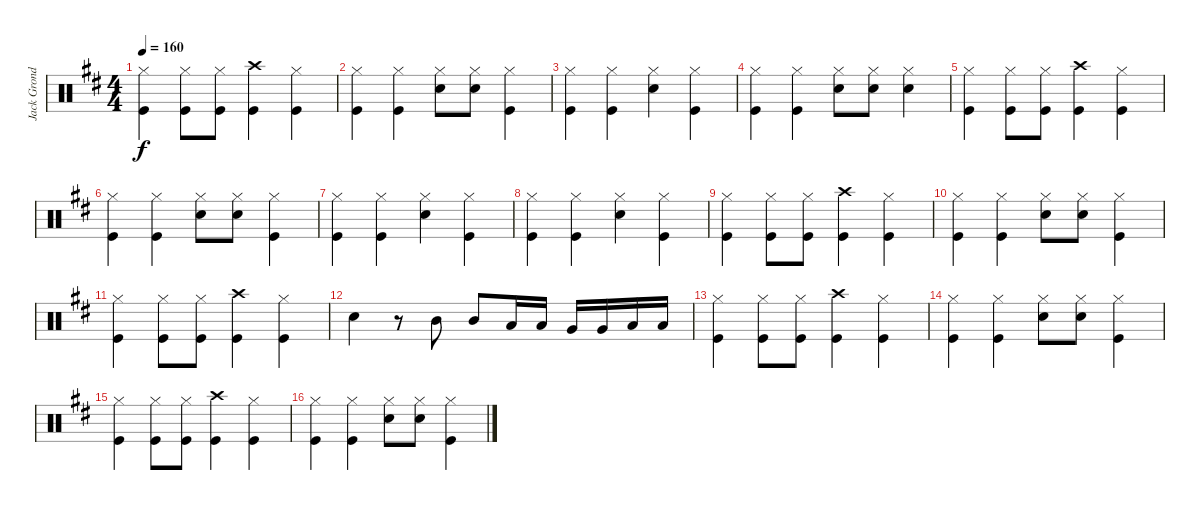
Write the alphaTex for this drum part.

\track ("Jack Grondin Drums" "Jack Grond") {instrument percussion}
\staff {score}
\articulation defaults
\ts (4 4)
\tempo 160
\clef neutral
\ks d
("Hi-Hat (closed)" "Kick (hit)").4{dy f} ("Hi-Hat (closed)" "Kick (hit)").8 ("Hi-Hat (closed)" "Kick (hit)").8 ("Crash high (hit)" "Kick (hit)").4 ("Hi-Hat (closed)" "Kick (hit)").4 |
("Hi-Hat (closed)" "Kick (hit)").4 ("Hi-Hat (closed)" "Kick (hit)").4 ("Hi-Hat (closed)" "Snare (hit) 2").8 ("Hi-Hat (closed)" "Snare (hit) 2").8 ("Hi-Hat (closed)" "Kick (hit)").4 |
("Hi-Hat (closed)" "Kick (hit)").4 ("Hi-Hat (closed)" "Kick (hit)").4 ("Hi-Hat (closed)" "Snare (hit) 2").4 ("Hi-Hat (closed)" "Kick (hit)").4 |
("Hi-Hat (closed)" "Kick (hit)").4 ("Hi-Hat (closed)" "Kick (hit)").4 ("Hi-Hat (closed)" "Snare (hit) 2").8 ("Hi-Hat (closed)" "Snare (hit) 2").8 ("Hi-Hat (closed)" "Snare (hit) 2").4 |
("Hi-Hat (closed)" "Kick (hit)").4 ("Hi-Hat (closed)" "Kick (hit)").8 ("Hi-Hat (closed)" "Kick (hit)").8 ("Crash high (hit)" "Kick (hit)").4 ("Hi-Hat (closed)" "Kick (hit)").4 |
("Hi-Hat (closed)" "Kick (hit)").4 ("Hi-Hat (closed)" "Kick (hit)").4 ("Hi-Hat (closed)" "Snare (hit) 2").8 ("Hi-Hat (closed)" "Snare (hit) 2").8 ("Hi-Hat (closed)" "Kick (hit)").4 |
("Hi-Hat (closed)" "Kick (hit)").4 ("Hi-Hat (closed)" "Kick (hit)").4 ("Hi-Hat (closed)" "Snare (hit) 2").4 ("Hi-Hat (closed)" "Kick (hit)").4 |
("Hi-Hat (closed)" "Kick (hit)").4 ("Hi-Hat (closed)" "Kick (hit)").4 ("Hi-Hat (closed)" "Snare (hit) 2").4 ("Hi-Hat (closed)" "Kick (hit)").4 |
("Hi-Hat (closed)" "Kick (hit)").4 ("Hi-Hat (closed)" "Kick (hit)").8 ("Hi-Hat (closed)" "Kick (hit)").8 ("Crash high (hit)" "Kick (hit)").4 ("Hi-Hat (closed)" "Kick (hit)").4 |
("Hi-Hat (closed)" "Kick (hit)").4 ("Hi-Hat (closed)" "Kick (hit)").4 ("Hi-Hat (closed)" "Snare (hit) 2").8 ("Hi-Hat (closed)" "Snare (hit) 2").8 ("Hi-Hat (closed)" "Kick (hit)").4 |
("Hi-Hat (closed)" "Kick (hit)").4 ("Hi-Hat (closed)" "Kick (hit)").8 ("Hi-Hat (closed)" "Kick (hit)").8 ("Crash high (hit)" "Kick (hit)").4 ("Hi-Hat (closed)" "Kick (hit)").4 |
"Snare (hit) 2".4 r.8 "Mid Tom (hit)".8 "Mid Tom (hit)".8 "Low Tom (hit)".16 "Low Tom (hit)".16 "Very Low Tom (hit)".16 "Very Low Tom (hit)".16 "Low Floor Tom (hit)".16 "Low Floor Tom (hit)".16 |
("Hi-Hat (closed)" "Kick (hit)").4 ("Hi-Hat (closed)" "Kick (hit)").8 ("Hi-Hat (closed)" "Kick (hit)").8 ("Crash high (hit)" "Kick (hit)").4 ("Hi-Hat (closed)" "Kick (hit)").4 |
("Hi-Hat (closed)" "Kick (hit)").4 ("Hi-Hat (closed)" "Kick (hit)").4 ("Hi-Hat (closed)" "Snare (hit) 2").8 ("Hi-Hat (closed)" "Snare (hit) 2").8 ("Hi-Hat (closed)" "Kick (hit)").4 |
("Hi-Hat (closed)" "Kick (hit)").4 ("Hi-Hat (closed)" "Kick (hit)").8 ("Hi-Hat (closed)" "Kick (hit)").8 ("Crash high (hit)" "Kick (hit)").4 ("Hi-Hat (closed)" "Kick (hit)").4 |
("Hi-Hat (closed)" "Kick (hit)").4 ("Hi-Hat (closed)" "Kick (hit)").4 ("Hi-Hat (closed)" "Snare (hit) 2").8 ("Hi-Hat (closed)" "Snare (hit) 2").8 ("Hi-Hat (closed)" "Kick (hit)").4
